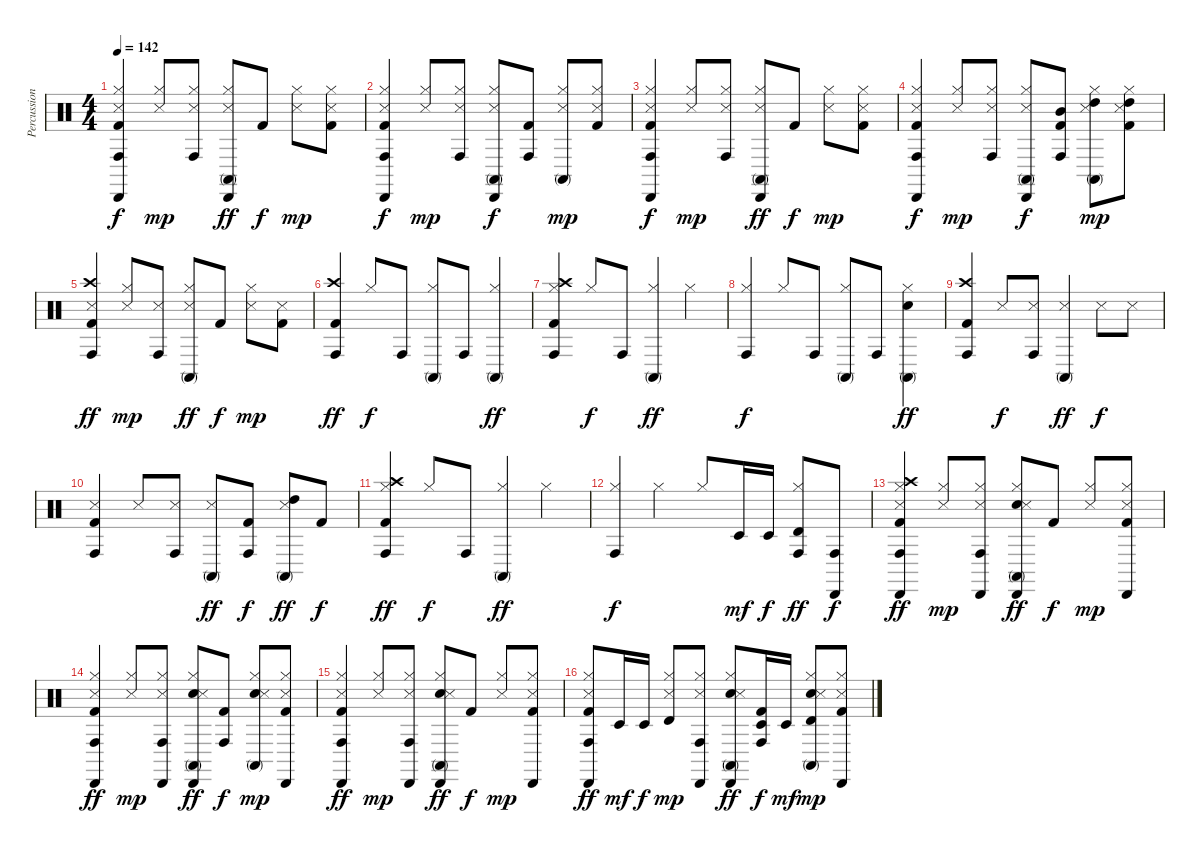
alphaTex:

\track ("Percussion" "Percussion") {instrument percussion}
\staff {score}
\articulation defaults
\ts (4 4)
\tempo 142
\clef neutral
\ks c
("Conga high (hit)" "Cabasa (hit)" "Hi-Hat (closed)" "Snare (side stick) 3" "Kick (hit) 2").4{dy f} ("Hi-Hat (closed)" "Snare (side stick) 3").8{dy mp} ("Conga high (hit)" "Hi-Hat (closed)" "Snare (side stick) 3").8 ("Conga high (mute)" "Cabasa (hit)" "Hi-Hat (closed)" "Snare (side stick) 3").8{dy ff} "Kick (hit) 2".8{dy f} ("Hi-Hat (closed)" "Snare (side stick) 3").8{dy mp} ("Hi-Hat (closed)" "Snare (side stick) 3" "Kick (hit) 2").8 |
("Conga high (hit)" "Cabasa (hit)" "Hi-Hat (closed)" "Snare (side stick) 3" "Kick (hit) 2").4{dy f} ("Hi-Hat (closed)" "Snare (side stick) 3").8{dy mp} ("Conga high (hit)" "Hi-Hat (closed)" "Snare (side stick) 3").8 ("Conga high (mute)" "Cabasa (hit)" "Hi-Hat (closed)" "Snare (side stick) 3").8{dy f} ("Conga high (hit)" "Kick (hit) 2").8 ("Conga high (mute)" "Hi-Hat (closed)" "Snare (side stick) 3").8{dy mp} ("Hi-Hat (closed)" "Snare (side stick) 3" "Kick (hit) 2").8 |
("Conga high (hit)" "Cabasa (hit)" "Hi-Hat (closed)" "Snare (side stick) 3" "Kick (hit) 2").4{dy f} ("Hi-Hat (closed)" "Snare (side stick) 3").8{dy mp} ("Conga high (hit)" "Hi-Hat (closed)" "Snare (side stick) 3").8 ("Conga high (mute)" "Cabasa (hit)" "Hi-Hat (closed)" "Snare (side stick) 3").8{dy ff} "Kick (hit) 2".8{dy f} ("Hi-Hat (closed)" "Snare (side stick) 3").8{dy mp} ("Hi-Hat (closed)" "Snare (side stick) 3" "Kick (hit) 2").8 |
("Conga high (hit)" "Cabasa (hit)" "Hi-Hat (closed)" "Snare (side stick) 3" "Kick (hit) 2").4{dy f} ("Hi-Hat (closed)" "Snare (side stick) 3").8{dy mp} ("Conga high (hit)" "Hi-Hat (closed)" "Snare (side stick) 3").8 ("Conga high (mute)" "Cabasa (hit)" "Hi-Hat (closed)" "Snare (side stick) 3").8{dy f} ("Conga high (hit)" "Mid Tom (hit)" "Kick (hit) 2").8 ("Conga high (mute)" "High Tom (hit)" "Hi-Hat (closed)" "Snare (side stick) 3").8{dy mp} ("High Tom (hit)" "Hi-Hat (closed)" "Snare (side stick) 3" "Kick (hit) 2").8 |
("Conga high (hit)" "Crash high (hit)" "Snare (side stick) 3" "Kick (hit) 2").4{dy ff} ("Hi-Hat (closed)" "Snare (side stick) 3").8{dy mp} ("Conga high (hit)" "Snare (side stick) 3").8 ("Conga high (mute)" "Hi-Hat (closed)" "Snare (side stick) 3").8{dy ff} "Kick (hit) 2".8{dy f} ("Hi-Hat (closed)" "Snare (side stick) 3").8{dy mp} ("Snare (side stick) 3" "Kick (hit) 2").8 |
("Conga high (hit)" "Crash high (hit)" "Kick (hit) 2").4{dy ff} "Hi-Hat (closed)".8{dy f} "Conga high (hit)".8 ("Conga high (mute)" "Hi-Hat (closed)").8 "Conga high (hit)".8 ("Conga high (mute)" "Hi-Hat (closed)").4{dy ff} |
("Conga high (hit)" "Crash high (hit)" "Hi-Hat (closed)" "Kick (hit) 2").4 "Hi-Hat (closed)".8{dy f} "Conga high (hit)".8 ("Conga high (mute)" "Hi-Hat (closed)").4{dy ff} "Hi-Hat (closed)".4 |
("Conga high (hit)" "Hi-Hat (closed)").4{dy f} "Hi-Hat (closed)".8 "Conga high (hit)".8 ("Conga high (mute)" "Hi-Hat (closed)").8 "Conga high (hit)".8 ("Conga high (mute)" "Hi-Hat (closed)" "Snare (hit) 2").4{dy ff} |
("Conga high (hit)" "Crash high (hit)" "Kick (hit) 2").4 "Snare (side stick) 3".8{dy f} ("Conga high (hit)" "Snare (side stick) 3").8 ("Conga high (mute)" "Snare (side stick) 3").4{dy ff} "Snare (side stick) 3".8{dy f} "Snare (side stick) 3".8 |
("Conga high (hit)" "Snare (side stick) 3" "Kick (hit) 2").4 "Snare (side stick) 3".8 ("Conga high (hit)" "Snare (side stick) 3").8 ("Conga high (mute)" "Snare (side stick) 3").8{dy ff} ("Conga high (hit)" "Kick (hit) 2").8{dy f} ("Conga high (mute)" "High Tom (hit)" "Snare (side stick) 3").8{dy ff} "Kick (hit) 2".8{dy f} |
("Conga high (hit)" "Crash high (hit)" "Hi-Hat (closed)" "Kick (hit) 2").4{dy ff} "Hi-Hat (closed)".8{dy f} "Conga high (hit)".8 ("Conga high (mute)" "Hi-Hat (closed)").4{dy ff} "Hi-Hat (closed)".4 |
("Conga high (hit)" "Hi-Hat (closed)").4{dy f} "Hi-Hat (closed)".4 "Hi-Hat (closed)".8 "Timbale low (hit)".16{dy mf} "Timbale low (hit)".16{dy f} ("Timbale high (hit)" "Conga high (hit)" "Hi-Hat (closed)").8{dy ff} ("Conga high (hit)" "Cabasa (hit)").8{dy f} |
("Conga high (hit)" "Cabasa (hit)" "Crash high (hit)" "Hi-Hat (closed)" "Snare (side stick) 3" "Kick (hit) 2").4{dy ff} ("Hi-Hat (closed)" "Snare (side stick) 3").8{dy mp} ("Conga high (hit)" "Cabasa (hit)" "Hi-Hat (closed)" "Snare (side stick) 3").8 ("Conga high (mute)" "Cabasa (hit)" "Hi-Hat (closed)" "Hand Clap (hit)" "Snare (side stick) 3").8{dy ff} "Kick (hit) 2".8{dy f} ("Hi-Hat (closed)" "Snare (side stick) 3").8{dy mp} ("Cabasa (hit)" "Hi-Hat (closed)" "Snare (side stick) 3" "Kick (hit) 2").8 |
("Conga high (hit)" "Cabasa (hit)" "Hi-Hat (closed)" "Snare (side stick) 3" "Kick (hit) 2").4{dy ff} ("Hi-Hat (closed)" "Snare (side stick) 3").8{dy mp} ("Conga high (hit)" "Cabasa (hit)" "Hi-Hat (closed)" "Snare (side stick) 3").8 ("Conga high (mute)" "Cabasa (hit)" "Hi-Hat (closed)" "Hand Clap (hit)" "Snare (side stick) 3").8{dy ff} ("Conga high (hit)" "Kick (hit) 2").8{dy f} ("Conga high (mute)" "Hi-Hat (closed)" "Hand Clap (hit)" "Snare (side stick) 3").8{dy mp} ("Cabasa (hit)" "Hi-Hat (closed)" "Snare (side stick) 3" "Kick (hit) 2").8 |
("Conga high (hit)" "Cabasa (hit)" "Hi-Hat (closed)" "Snare (side stick) 3" "Kick (hit) 2").4{dy ff} ("Hi-Hat (closed)" "Snare (side stick) 3").8{dy mp} ("Conga high (hit)" "Cabasa (hit)" "Hi-Hat (closed)" "Snare (side stick) 3").8 ("Conga high (mute)" "Cabasa (hit)" "Hi-Hat (closed)" "Hand Clap (hit)" "Snare (side stick) 3").8{dy ff} "Kick (hit) 2".8{dy f} ("Hi-Hat (closed)" "Snare (side stick) 3").8{dy mp} ("Cabasa (hit)" "Hi-Hat (closed)" "Snare (side stick) 3" "Kick (hit) 2").8 |
("Conga high (hit)" "Cabasa (hit)" "Hi-Hat (closed)" "Snare (side stick) 3" "Kick (hit) 2").8{dy ff} "Timbale low (hit)".16{dy mf} "Timbale low (hit)".16{dy f} ("Timbale high (hit)" "Hi-Hat (closed)" "Snare (side stick) 3").8{dy mp} ("Conga high (hit)" "Cabasa (hit)" "Hi-Hat (closed)" "Snare (side stick) 3").8 ("Conga high (mute)" "Cabasa (hit)" "Hi-Hat (closed)" "Hand Clap (hit)" "Snare (side stick) 3").8{dy ff} ("Timbale low (hit)" "Conga high (hit)" "Kick (hit) 2").16{dy f} "Timbale low (hit)".16{dy mf} ("Timbale high (hit)" "Conga high (mute)" "Hi-Hat (closed)" "Hand Clap (hit)" "Snare (side stick) 3").8{dy mp} ("Cabasa (hit)" "Hi-Hat (closed)" "Snare (side stick) 3" "Kick (hit) 2").8
